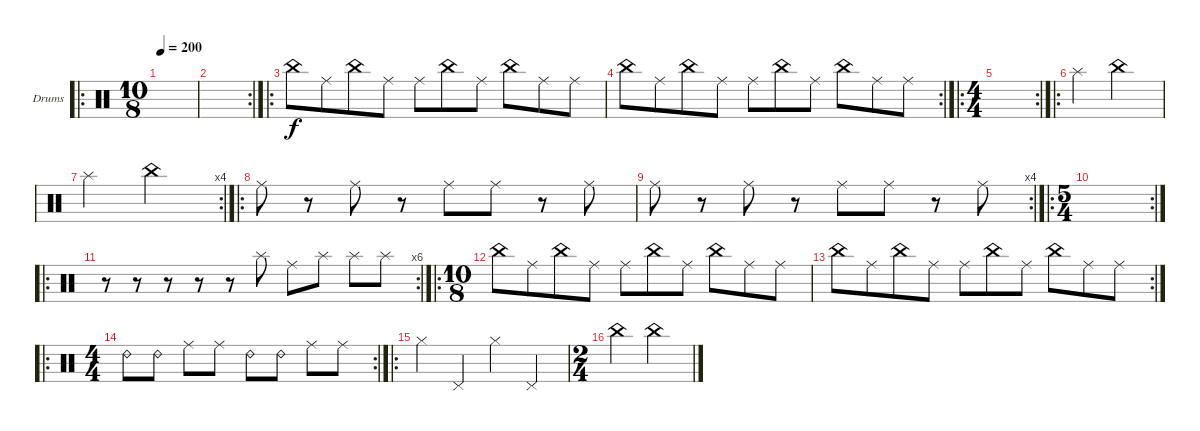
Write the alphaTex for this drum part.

\defaultSystemsLayout 4
\bracketExtendMode groupsimilarinstruments
\firstSystemTrackNameOrientation horizontal
\otherSystemsTrackNameOrientation horizontal
\track ("Midget Caverly" "Drums") {instrument percussion}
\staff {score}
\articulation defaults
\ro
\ts (10 8)
\tempo 200
\clef neutral
\ks c
|
\rc 2
|
\ro "China (hit)".8 "Ride (middle)".8 "China (hit)".8 "Ride (middle)".8 "Ride (middle)".8 "China (hit)".8 "Ride (middle)".8 "China (hit)".8 "Ride (middle)".8 "Ride (middle)".8
|
\rc 2 "China (hit)".8 "Ride (middle)".8 "China (hit)".8 "Ride (middle)".8 "Ride (middle)".8 "China (hit)".8 "Ride (middle)".8 "China (hit)".8 "Ride (middle)".8 "Ride (middle)".8
|
\ro
\rc 2
\ts (4 4)
|
\ro "Splash (hit)".2 "China (hit)".2
|
\rc 4 "Splash (hit)".2 "China (hit)".2
|
\ro "Ride (middle)".8
r.8 "Ride (middle)".8 r.8 "Ride (middle)".8 "Ride (middle)".8 r.8 "Ride (middle)".8 |
\rc 4 "Ride (middle)".8
r.8 "Ride (middle)".8 r.8 "Ride (middle)".8 "Ride (middle)".8 r.8 "Ride (middle)".8 |
\ro
\rc 2
\ts (5 4)
|
\ro
\rc 6
r.8 r.8 r.8 r.8 r.8 "Splash (hit)".8 "Ride (middle)".8 "Splash (hit)".8 "Splash (hit)".8 "Splash (hit)".8 |
\ro
\ts (10 8)
"China (hit)".8 "Ride (middle)".8 "China (hit)".8 "Ride (middle)".8 "Ride (middle)".8 "China (hit)".8 "Ride (middle)".8 "China (hit)".8 "Ride (middle)".8 "Ride (middle)".8 |
\rc 2 "China (hit)".8 "Ride (middle)".8 "China (hit)".8 "Ride (middle)".8 "Ride (middle)".8 "China (hit)".8 "Ride (middle)".8 "China (hit)".8 "Ride (middle)".8 "Ride (middle)".8
|
\ro
\rc 2
\ts (4 4)
"Ride (bell) 2".8 "Ride (bell) 2".8 "Ride (middle)".8 "Ride (middle)".8 "Ride (bell) 2".8 "Ride (bell) 2".8 "Ride (middle)".8 "Ride (middle)".8 |
\ro "Hi-Hat (closed)".4 "Pedal Hi-Hat (hit)".4 "Hi-Hat (closed)".4 "Pedal Hi-Hat (hit)".4
|
\ts (2 4)
"China (hit)".4 "China (hit)".4
